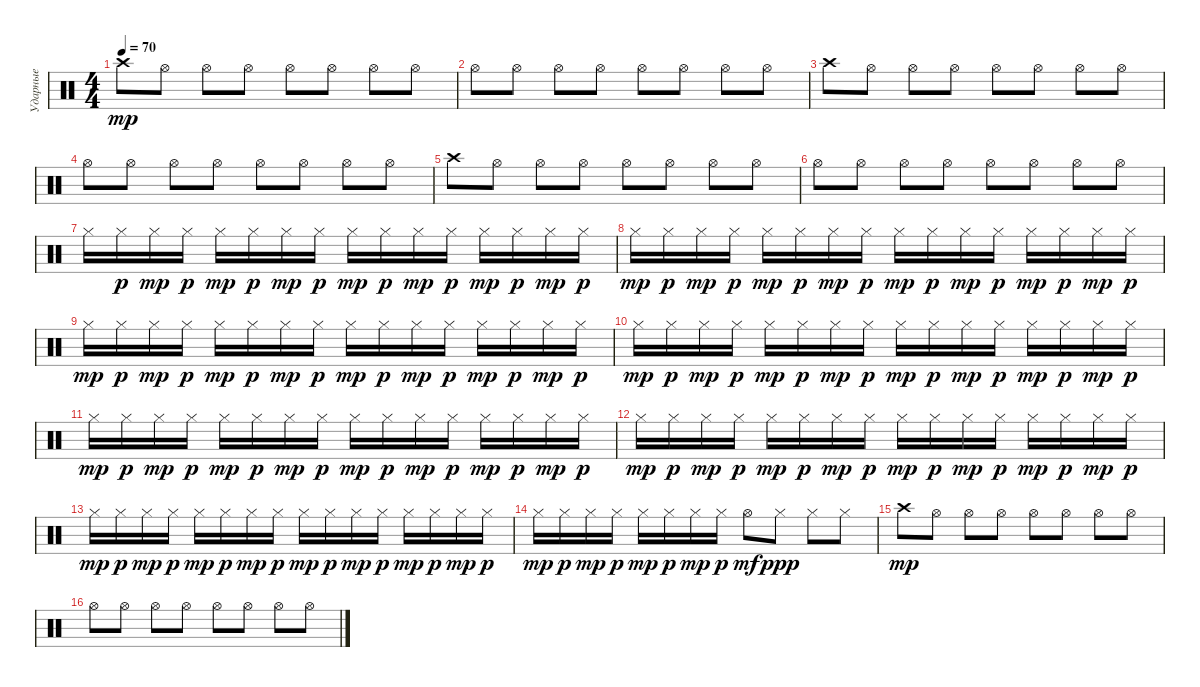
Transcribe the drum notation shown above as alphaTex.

\track ("Ударные" "Ударные") {instrument percussion}
\staff {score}
\articulation defaults
\ts (4 4)
\tempo 70
\clef neutral
\ks c "Crash high (hit)".8{dy mp} "Hi-Hat (open)".8 "Hi-Hat (open)".8 "Hi-Hat (open)".8 "Hi-Hat (open)".8 "Hi-Hat (open)".8 "Hi-Hat (open)".8 "Hi-Hat (open)".8
|
"Hi-Hat (open)".8 "Hi-Hat (open)".8 "Hi-Hat (open)".8 "Hi-Hat (open)".8 "Hi-Hat (open)".8 "Hi-Hat (open)".8 "Hi-Hat (open)".8 "Hi-Hat (open)".8 |
"Crash high (hit)".8 "Hi-Hat (open)".8 "Hi-Hat (open)".8 "Hi-Hat (open)".8 "Hi-Hat (open)".8 "Hi-Hat (open)".8 "Hi-Hat (open)".8 "Hi-Hat (open)".8 |
"Hi-Hat (open)".8 "Hi-Hat (open)".8 "Hi-Hat (open)".8 "Hi-Hat (open)".8 "Hi-Hat (open)".8 "Hi-Hat (open)".8 "Hi-Hat (open)".8 "Hi-Hat (open)".8 |
"Crash high (hit)".8 "Hi-Hat (open)".8 "Hi-Hat (open)".8 "Hi-Hat (open)".8 "Hi-Hat (open)".8 "Hi-Hat (open)".8 "Hi-Hat (open)".8 "Hi-Hat (open)".8 |
"Hi-Hat (open)".8 "Hi-Hat (open)".8 "Hi-Hat (open)".8 "Hi-Hat (open)".8 "Hi-Hat (open)".8 "Hi-Hat (open)".8 "Hi-Hat (open)".8 "Hi-Hat (open)".8 |
"Hi-Hat (closed)".16 "Hi-Hat (closed)".16{dy p} "Hi-Hat (closed)".16{dy mp} "Hi-Hat (closed)".16{dy p} "Hi-Hat (closed)".16{dy mp} "Hi-Hat (closed)".16{dy p} "Hi-Hat (closed)".16{dy mp} "Hi-Hat (closed)".16{dy p} "Hi-Hat (closed)".16{dy mp} "Hi-Hat (closed)".16{dy p} "Hi-Hat (closed)".16{dy mp} "Hi-Hat (closed)".16{dy p} "Hi-Hat (closed)".16{dy mp} "Hi-Hat (closed)".16{dy p} "Hi-Hat (closed)".16{dy mp} "Hi-Hat (closed)".16{dy p} |
"Hi-Hat (closed)".16{dy mp} "Hi-Hat (closed)".16{dy p} "Hi-Hat (closed)".16{dy mp} "Hi-Hat (closed)".16{dy p} "Hi-Hat (closed)".16{dy mp} "Hi-Hat (closed)".16{dy p} "Hi-Hat (closed)".16{dy mp} "Hi-Hat (closed)".16{dy p} "Hi-Hat (closed)".16{dy mp} "Hi-Hat (closed)".16{dy p} "Hi-Hat (closed)".16{dy mp} "Hi-Hat (closed)".16{dy p} "Hi-Hat (closed)".16{dy mp} "Hi-Hat (closed)".16{dy p} "Hi-Hat (closed)".16{dy mp} "Hi-Hat (closed)".16{dy p} |
"Hi-Hat (closed)".16{dy mp} "Hi-Hat (closed)".16{dy p} "Hi-Hat (closed)".16{dy mp} "Hi-Hat (closed)".16{dy p} "Hi-Hat (closed)".16{dy mp} "Hi-Hat (closed)".16{dy p} "Hi-Hat (closed)".16{dy mp} "Hi-Hat (closed)".16{dy p} "Hi-Hat (closed)".16{dy mp} "Hi-Hat (closed)".16{dy p} "Hi-Hat (closed)".16{dy mp} "Hi-Hat (closed)".16{dy p} "Hi-Hat (closed)".16{dy mp} "Hi-Hat (closed)".16{dy p} "Hi-Hat (closed)".16{dy mp} "Hi-Hat (closed)".16{dy p} |
"Hi-Hat (closed)".16{dy mp} "Hi-Hat (closed)".16{dy p} "Hi-Hat (closed)".16{dy mp} "Hi-Hat (closed)".16{dy p} "Hi-Hat (closed)".16{dy mp} "Hi-Hat (closed)".16{dy p} "Hi-Hat (closed)".16{dy mp} "Hi-Hat (closed)".16{dy p} "Hi-Hat (closed)".16{dy mp} "Hi-Hat (closed)".16{dy p} "Hi-Hat (closed)".16{dy mp} "Hi-Hat (closed)".16{dy p} "Hi-Hat (closed)".16{dy mp} "Hi-Hat (closed)".16{dy p} "Hi-Hat (closed)".16{dy mp} "Hi-Hat (closed)".16{dy p} |
"Hi-Hat (closed)".16{dy mp} "Hi-Hat (closed)".16{dy p} "Hi-Hat (closed)".16{dy mp} "Hi-Hat (closed)".16{dy p} "Hi-Hat (closed)".16{dy mp} "Hi-Hat (closed)".16{dy p} "Hi-Hat (closed)".16{dy mp} "Hi-Hat (closed)".16{dy p} "Hi-Hat (closed)".16{dy mp} "Hi-Hat (closed)".16{dy p} "Hi-Hat (closed)".16{dy mp} "Hi-Hat (closed)".16{dy p} "Hi-Hat (closed)".16{dy mp} "Hi-Hat (closed)".16{dy p} "Hi-Hat (closed)".16{dy mp} "Hi-Hat (closed)".16{dy p} |
"Hi-Hat (closed)".16{dy mp} "Hi-Hat (closed)".16{dy p} "Hi-Hat (closed)".16{dy mp} "Hi-Hat (closed)".16{dy p} "Hi-Hat (closed)".16{dy mp} "Hi-Hat (closed)".16{dy p} "Hi-Hat (closed)".16{dy mp} "Hi-Hat (closed)".16{dy p} "Hi-Hat (closed)".16{dy mp} "Hi-Hat (closed)".16{dy p} "Hi-Hat (closed)".16{dy mp} "Hi-Hat (closed)".16{dy p} "Hi-Hat (closed)".16{dy mp} "Hi-Hat (closed)".16{dy p} "Hi-Hat (closed)".16{dy mp} "Hi-Hat (closed)".16{dy p} |
"Hi-Hat (closed)".16{dy mp} "Hi-Hat (closed)".16{dy p} "Hi-Hat (closed)".16{dy mp} "Hi-Hat (closed)".16{dy p} "Hi-Hat (closed)".16{dy mp} "Hi-Hat (closed)".16{dy p} "Hi-Hat (closed)".16{dy mp} "Hi-Hat (closed)".16{dy p} "Hi-Hat (closed)".16{dy mp} "Hi-Hat (closed)".16{dy p} "Hi-Hat (closed)".16{dy mp} "Hi-Hat (closed)".16{dy p} "Hi-Hat (closed)".16{dy mp} "Hi-Hat (closed)".16{dy p} "Hi-Hat (closed)".16{dy mp} "Hi-Hat (closed)".16{dy p} |
"Hi-Hat (closed)".16{dy mp} "Hi-Hat (closed)".16{dy p} "Hi-Hat (closed)".16{dy mp} "Hi-Hat (closed)".16{dy p} "Hi-Hat (closed)".16{dy mp} "Hi-Hat (closed)".16{dy p} "Hi-Hat (closed)".16{dy mp} "Hi-Hat (closed)".16{dy p} "Hi-Hat (open)".8{dy mf} "Hi-Hat (closed)".8{dy ppp} "Hi-Hat (closed)".8 "Hi-Hat (closed)".8 |
"Crash high (hit)".8{dy mp} "Hi-Hat (open)".8 "Hi-Hat (open)".8 "Hi-Hat (open)".8 "Hi-Hat (open)".8 "Hi-Hat (open)".8 "Hi-Hat (open)".8 "Hi-Hat (open)".8 |
"Hi-Hat (open)".8 "Hi-Hat (open)".8 "Hi-Hat (open)".8 "Hi-Hat (open)".8 "Hi-Hat (open)".8 "Hi-Hat (open)".8 "Hi-Hat (open)".8 "Hi-Hat (open)".8
